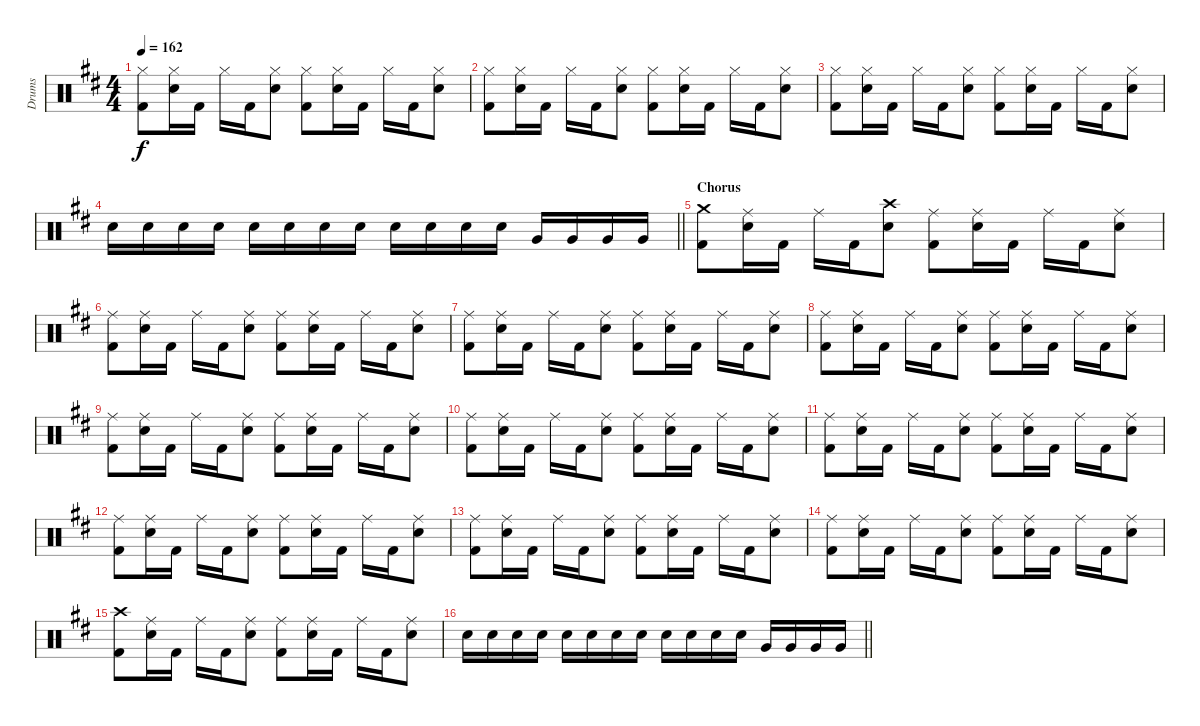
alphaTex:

\track ("Drums" "Drums") {instrument percussion}
\staff {score}
\articulation defaults
\ts (4 4)
\tempo 162
\clef neutral
\ks d
("Hi-Hat (closed)" "Kick (hit) 2").8{dy f} ("Hi-Hat (closed)" "Snare (hit) 2").16 "Kick (hit) 2".16 "Hi-Hat (closed)".16 "Kick (hit) 2".16 ("Hi-Hat (closed)" "Snare (hit) 2").8 ("Hi-Hat (closed)" "Kick (hit) 2").8 ("Hi-Hat (closed)" "Snare (hit) 2").16 "Kick (hit) 2".16 "Hi-Hat (closed)".16 "Kick (hit) 2".16 ("Hi-Hat (closed)" "Snare (hit) 2").8 |
("Hi-Hat (closed)" "Kick (hit) 2").8 ("Hi-Hat (closed)" "Snare (hit) 2").16 "Kick (hit) 2".16 "Hi-Hat (closed)".16 "Kick (hit) 2".16 ("Hi-Hat (closed)" "Snare (hit) 2").8 ("Hi-Hat (closed)" "Kick (hit) 2").8 ("Hi-Hat (closed)" "Snare (hit) 2").16 "Kick (hit) 2".16 "Hi-Hat (closed)".16 "Kick (hit) 2".16 ("Hi-Hat (closed)" "Snare (hit) 2").8 |
("Hi-Hat (closed)" "Kick (hit) 2").8 ("Hi-Hat (closed)" "Snare (hit) 2").16 "Kick (hit) 2".16 "Hi-Hat (closed)".16 "Kick (hit) 2".16 ("Hi-Hat (closed)" "Snare (hit) 2").8 ("Hi-Hat (closed)" "Kick (hit) 2").8 ("Hi-Hat (closed)" "Snare (hit) 2").16 "Kick (hit) 2".16 "Hi-Hat (closed)".16 "Kick (hit) 2".16 ("Hi-Hat (closed)" "Snare (hit) 2").8 |
\barLineRight lightlight "Snare (hit) 2".16 "Snare (hit) 2".16 "Snare (hit) 2".16 "Snare (hit) 2".16 "Snare (hit) 2".16 "Snare (hit) 2".16 "Snare (hit) 2".16 "Snare (hit) 2".16 "Snare (hit) 2".16 "Snare (hit) 2".16 "Snare (hit) 2".16 "Snare (hit) 2".16 "Very Low Tom (hit)".16 "Very Low Tom (hit)".16 "Very Low Tom (hit)".16 "Very Low Tom (hit)".16
|
\section ("" "Chorus")
("Crash medium (hit)" "Kick (hit) 2").8 ("Ride (middle)" "Snare (hit) 2").16 "Kick (hit) 2".16 "Ride (middle)".16 "Kick (hit) 2".16 ("Crash high (hit)" "Snare (hit) 2").8 ("Ride (middle)" "Kick (hit) 2").8 ("Ride (middle)" "Snare (hit) 2").16 "Kick (hit) 2".16 "Ride (middle)".16 "Kick (hit) 2".16 ("Ride (middle)" "Snare (hit) 2").8 |
("Ride (middle)" "Kick (hit) 2").8 ("Ride (middle)" "Snare (hit) 2").16 "Kick (hit) 2".16 "Ride (middle)".16 "Kick (hit) 2".16 ("Ride (middle)" "Snare (hit) 2").8 ("Ride (middle)" "Kick (hit) 2").8 ("Ride (middle)" "Snare (hit) 2").16 "Kick (hit) 2".16 "Ride (middle)".16 "Kick (hit) 2".16 ("Ride (middle)" "Snare (hit) 2").8 |
("Ride (middle)" "Kick (hit) 2").8 ("Ride (middle)" "Snare (hit) 2").16 "Kick (hit) 2".16 "Ride (middle)".16 "Kick (hit) 2".16 ("Ride (middle)" "Snare (hit) 2").8 ("Ride (middle)" "Kick (hit) 2").8 ("Ride (middle)" "Snare (hit) 2").16 "Kick (hit) 2".16 "Ride (middle)".16 "Kick (hit) 2".16 ("Ride (middle)" "Snare (hit) 2").8 |
("Ride (middle)" "Kick (hit) 2").8 ("Ride (middle)" "Snare (hit) 2").16 "Kick (hit) 2".16 "Ride (middle)".16 "Kick (hit) 2".16 ("Ride (middle)" "Snare (hit) 2").8 ("Ride (middle)" "Kick (hit) 2").8 ("Ride (middle)" "Snare (hit) 2").16 "Kick (hit) 2".16 "Ride (middle)".16 "Kick (hit) 2".16 ("Ride (middle)" "Snare (hit) 2").8 |
("Ride (middle)" "Kick (hit) 2").8 ("Ride (middle)" "Snare (hit) 2").16 "Kick (hit) 2".16 "Ride (middle)".16 "Kick (hit) 2".16 ("Ride (middle)" "Snare (hit) 2").8 ("Ride (middle)" "Kick (hit) 2").8 ("Ride (middle)" "Snare (hit) 2").16 "Kick (hit) 2".16 "Ride (middle)".16 "Kick (hit) 2".16 ("Ride (middle)" "Snare (hit) 2").8 |
("Ride (middle)" "Kick (hit) 2").8 ("Ride (middle)" "Snare (hit) 2").16 "Kick (hit) 2".16 "Ride (middle)".16 "Kick (hit) 2".16 ("Ride (middle)" "Snare (hit) 2").8 ("Ride (middle)" "Kick (hit) 2").8 ("Ride (middle)" "Snare (hit) 2").16 "Kick (hit) 2".16 "Ride (middle)".16 "Kick (hit) 2".16 ("Ride (middle)" "Snare (hit) 2").8 |
("Ride (middle)" "Kick (hit) 2").8 ("Ride (middle)" "Snare (hit) 2").16 "Kick (hit) 2".16 "Ride (middle)".16 "Kick (hit) 2".16 ("Ride (middle)" "Snare (hit) 2").8 ("Ride (middle)" "Kick (hit) 2").8 ("Ride (middle)" "Snare (hit) 2").16 "Kick (hit) 2".16 "Ride (middle)".16 "Kick (hit) 2".16 ("Ride (middle)" "Snare (hit) 2").8 |
("Ride (middle)" "Kick (hit) 2").8 ("Ride (middle)" "Snare (hit) 2").16 "Kick (hit) 2".16 "Ride (middle)".16 "Kick (hit) 2".16 ("Ride (middle)" "Snare (hit) 2").8 ("Ride (middle)" "Kick (hit) 2").8 ("Ride (middle)" "Snare (hit) 2").16 "Kick (hit) 2".16 "Ride (middle)".16 "Kick (hit) 2".16 ("Ride (middle)" "Snare (hit) 2").8 |
("Ride (middle)" "Kick (hit) 2").8 ("Ride (middle)" "Snare (hit) 2").16 "Kick (hit) 2".16 "Ride (middle)".16 "Kick (hit) 2".16 ("Ride (middle)" "Snare (hit) 2").8 ("Ride (middle)" "Kick (hit) 2").8 ("Ride (middle)" "Snare (hit) 2").16 "Kick (hit) 2".16 "Ride (middle)".16 "Kick (hit) 2".16 ("Ride (middle)" "Snare (hit) 2").8 |
("Ride (middle)" "Kick (hit) 2").8 ("Ride (middle)" "Snare (hit) 2").16 "Kick (hit) 2".16 "Ride (middle)".16 "Kick (hit) 2".16 ("Ride (middle)" "Snare (hit) 2").8 ("Ride (middle)" "Kick (hit) 2").8 ("Ride (middle)" "Snare (hit) 2").16 "Kick (hit) 2".16 "Ride (middle)".16 "Kick (hit) 2".16 ("Ride (middle)" "Snare (hit) 2").8 |
("Crash high (hit)" "Kick (hit) 2").8 ("Ride (middle)" "Snare (hit) 2").16 "Kick (hit) 2".16 "Ride (middle)".16 "Kick (hit) 2".16 ("Ride (middle)" "Snare (hit) 2").8 ("Ride (middle)" "Kick (hit) 2").8 ("Ride (middle)" "Snare (hit) 2").16 "Kick (hit) 2".16 "Ride (middle)".16 "Kick (hit) 2".16 ("Ride (middle)" "Snare (hit) 2").8 |
\barLineRight lightlight "Snare (hit) 2".16 "Snare (hit) 2".16 "Snare (hit) 2".16 "Snare (hit) 2".16 "Snare (hit) 2".16 "Snare (hit) 2".16 "Snare (hit) 2".16 "Snare (hit) 2".16 "Snare (hit) 2".16 "Snare (hit) 2".16 "Snare (hit) 2".16 "Snare (hit) 2".16 "Very Low Tom (hit)".16 "Very Low Tom (hit)".16 "Very Low Tom (hit)".16 "Very Low Tom (hit)".16
